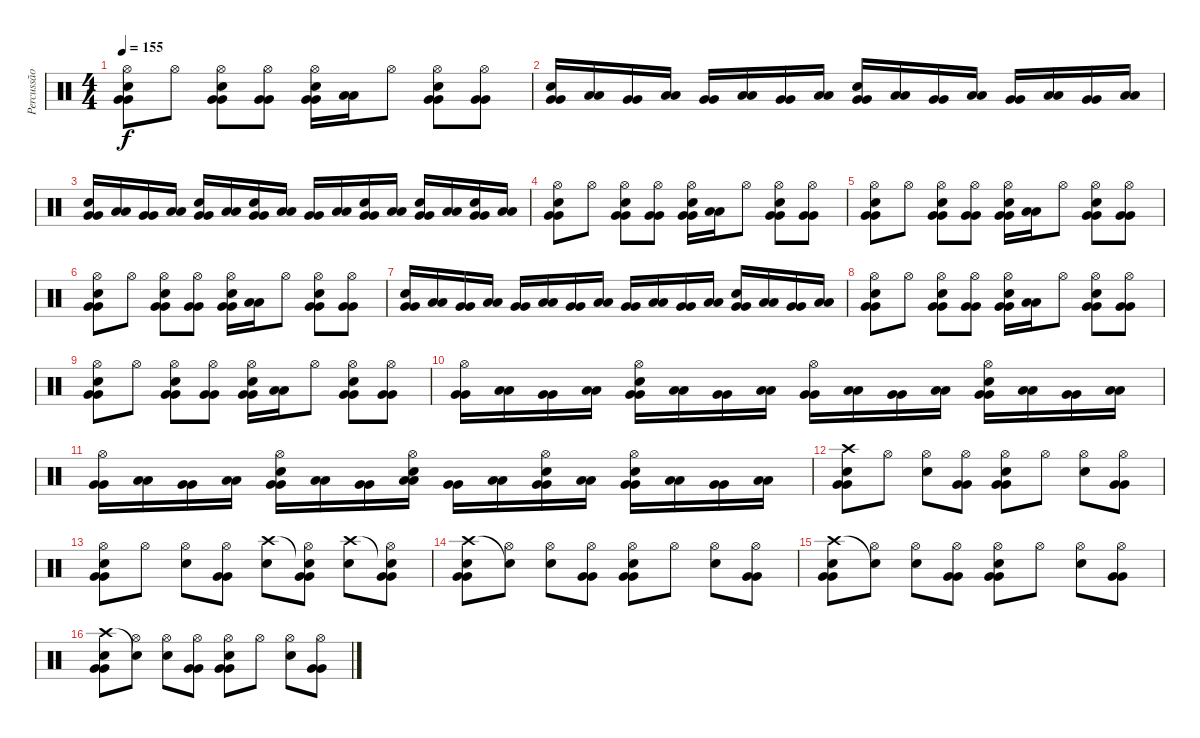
\track ("Percussão" "Percussão") {instrument percussion}
\staff {score}
\articulation defaults
\ts (4 4)
\tempo 155
\clef neutral
\ks c
("Hi-Hat (open)" "Electric Snare (hit)" "Very Low Tom (hit)" "Very Low Tom (hit)").8{dy f} "Hi-Hat (open)".8 ("Hi-Hat (open)" "Electric Snare (hit)" "Very Low Tom (hit)" "Very Low Tom (hit)").8 ("Hi-Hat (open)" "Very Low Tom (hit)" "Very Low Tom (hit)").8 ("Hi-Hat (open)" "Electric Snare (hit)" "Very Low Tom (hit)" "Very Low Tom (hit)").16 ("Low Floor Tom (hit)" "Low Floor Tom (hit)").16 "Hi-Hat (open)".8 ("Hi-Hat (open)" "Electric Snare (hit)" "Very Low Tom (hit)" "Very Low Tom (hit)").8 ("Hi-Hat (open)" "Very Low Tom (hit)" "Very Low Tom (hit)").8 |
("Electric Snare (hit)" "Very Low Tom (hit)" "Very Low Tom (hit)").16 ("Low Floor Tom (hit)" "Low Floor Tom (hit)").16 ("Very Low Tom (hit)" "Very Low Tom (hit)").16 ("Low Floor Tom (hit)" "Low Floor Tom (hit)").16 ("Very Low Tom (hit)" "Very Low Tom (hit)").16 ("Low Floor Tom (hit)" "Low Floor Tom (hit)").16 ("Very Low Tom (hit)" "Very Low Tom (hit)").16 ("Low Floor Tom (hit)" "Low Floor Tom (hit)").16 ("Electric Snare (hit)" "Very Low Tom (hit)" "Very Low Tom (hit)").16 ("Low Floor Tom (hit)" "Low Floor Tom (hit)").16 ("Very Low Tom (hit)" "Very Low Tom (hit)").16 ("Low Floor Tom (hit)" "Low Floor Tom (hit)").16 ("Very Low Tom (hit)" "Very Low Tom (hit)").16 ("Low Floor Tom (hit)" "Low Floor Tom (hit)").16 ("Very Low Tom (hit)" "Very Low Tom (hit)").16 ("Low Floor Tom (hit)" "Low Floor Tom (hit)").16 |
("Electric Snare (hit)" "Very Low Tom (hit)" "Very Low Tom (hit)").16 ("Low Floor Tom (hit)" "Low Floor Tom (hit)").16 ("Very Low Tom (hit)" "Very Low Tom (hit)").16 ("Low Floor Tom (hit)" "Low Floor Tom (hit)").16 ("Electric Snare (hit)" "Very Low Tom (hit)" "Very Low Tom (hit)").16 ("Low Floor Tom (hit)" "Low Floor Tom (hit)").16 ("Electric Snare (hit)" "Very Low Tom (hit)" "Very Low Tom (hit)").16 ("Low Floor Tom (hit)" "Low Floor Tom (hit)").16 ("Very Low Tom (hit)" "Very Low Tom (hit)").16 ("Low Floor Tom (hit)" "Low Floor Tom (hit)").16 ("Electric Snare (hit)" "Very Low Tom (hit)" "Very Low Tom (hit)").16 ("Low Floor Tom (hit)" "Low Floor Tom (hit)").16 ("Electric Snare (hit)" "Very Low Tom (hit)" "Very Low Tom (hit)").16 ("Low Floor Tom (hit)" "Low Floor Tom (hit)").16 ("Electric Snare (hit)" "Very Low Tom (hit)" "Very Low Tom (hit)").16 ("Low Floor Tom (hit)" "Low Floor Tom (hit)").16 |
("Hi-Hat (open)" "Electric Snare (hit)" "Very Low Tom (hit)" "Very Low Tom (hit)").8 "Hi-Hat (open)".8 ("Hi-Hat (open)" "Electric Snare (hit)" "Very Low Tom (hit)" "Very Low Tom (hit)").8 ("Hi-Hat (open)" "Very Low Tom (hit)" "Very Low Tom (hit)").8 ("Hi-Hat (open)" "Electric Snare (hit)" "Very Low Tom (hit)" "Very Low Tom (hit)").16 ("Low Floor Tom (hit)" "Low Floor Tom (hit)").16 "Hi-Hat (open)".8 ("Hi-Hat (open)" "Electric Snare (hit)" "Very Low Tom (hit)" "Very Low Tom (hit)").8 ("Hi-Hat (open)" "Very Low Tom (hit)" "Very Low Tom (hit)").8 |
("Hi-Hat (open)" "Electric Snare (hit)" "Very Low Tom (hit)" "Very Low Tom (hit)").8 "Hi-Hat (open)".8 ("Hi-Hat (open)" "Electric Snare (hit)" "Very Low Tom (hit)" "Very Low Tom (hit)").8 ("Hi-Hat (open)" "Very Low Tom (hit)" "Very Low Tom (hit)").8 ("Hi-Hat (open)" "Electric Snare (hit)" "Very Low Tom (hit)" "Very Low Tom (hit)").16 ("Low Floor Tom (hit)" "Low Floor Tom (hit)").16 "Hi-Hat (open)".8 ("Hi-Hat (open)" "Electric Snare (hit)" "Very Low Tom (hit)" "Very Low Tom (hit)").8 ("Hi-Hat (open)" "Very Low Tom (hit)" "Very Low Tom (hit)").8 |
("Hi-Hat (open)" "Electric Snare (hit)" "Very Low Tom (hit)" "Very Low Tom (hit)").8 "Hi-Hat (open)".8 ("Hi-Hat (open)" "Electric Snare (hit)" "Very Low Tom (hit)" "Very Low Tom (hit)").8 ("Hi-Hat (open)" "Very Low Tom (hit)" "Very Low Tom (hit)").8 ("Hi-Hat (open)" "Electric Snare (hit)" "Very Low Tom (hit)" "Very Low Tom (hit)").16 ("Low Floor Tom (hit)" "Low Floor Tom (hit)").16 "Hi-Hat (open)".8 ("Hi-Hat (open)" "Electric Snare (hit)" "Very Low Tom (hit)" "Very Low Tom (hit)").8 ("Hi-Hat (open)" "Very Low Tom (hit)" "Very Low Tom (hit)").8 |
("Electric Snare (hit)" "Very Low Tom (hit)" "Very Low Tom (hit)").16 ("Low Floor Tom (hit)" "Low Floor Tom (hit)").16 ("Very Low Tom (hit)" "Very Low Tom (hit)").16 ("Low Floor Tom (hit)" "Low Floor Tom (hit)").16 ("Very Low Tom (hit)" "Very Low Tom (hit)").16 ("Low Floor Tom (hit)" "Low Floor Tom (hit)").16 ("Very Low Tom (hit)" "Very Low Tom (hit)").16 ("Low Floor Tom (hit)" "Low Floor Tom (hit)").16 ("Very Low Tom (hit)" "Very Low Tom (hit)").16 ("Low Floor Tom (hit)" "Low Floor Tom (hit)").16 ("Very Low Tom (hit)" "Very Low Tom (hit)").16 ("Low Floor Tom (hit)" "Low Floor Tom (hit)").16 ("Electric Snare (hit)" "Very Low Tom (hit)" "Very Low Tom (hit)").16 ("Low Floor Tom (hit)" "Low Floor Tom (hit)").16 ("Very Low Tom (hit)" "Very Low Tom (hit)").16 ("Low Floor Tom (hit)" "Low Floor Tom (hit)").16 |
("Hi-Hat (open)" "Electric Snare (hit)" "Very Low Tom (hit)" "Very Low Tom (hit)").8 "Hi-Hat (open)".8 ("Hi-Hat (open)" "Electric Snare (hit)" "Very Low Tom (hit)" "Very Low Tom (hit)").8 ("Hi-Hat (open)" "Very Low Tom (hit)" "Very Low Tom (hit)").8 ("Hi-Hat (open)" "Electric Snare (hit)" "Very Low Tom (hit)" "Very Low Tom (hit)").16 ("Low Floor Tom (hit)" "Low Floor Tom (hit)").16 "Hi-Hat (open)".8 ("Hi-Hat (open)" "Electric Snare (hit)" "Very Low Tom (hit)" "Very Low Tom (hit)").8 ("Hi-Hat (open)" "Very Low Tom (hit)" "Very Low Tom (hit)").8 |
("Hi-Hat (open)" "Electric Snare (hit)" "Very Low Tom (hit)" "Very Low Tom (hit)").8 "Hi-Hat (open)".8 ("Hi-Hat (open)" "Electric Snare (hit)" "Very Low Tom (hit)" "Very Low Tom (hit)").8 ("Hi-Hat (open)" "Very Low Tom (hit)" "Very Low Tom (hit)").8 ("Hi-Hat (open)" "Electric Snare (hit)" "Very Low Tom (hit)" "Very Low Tom (hit)").16 ("Low Floor Tom (hit)" "Low Floor Tom (hit)").16 "Hi-Hat (open)".8 ("Hi-Hat (open)" "Electric Snare (hit)" "Very Low Tom (hit)" "Very Low Tom (hit)").8 ("Hi-Hat (open)" "Very Low Tom (hit)" "Very Low Tom (hit)").8 |
("Hi-Hat (open)" "Very Low Tom (hit)" "Very Low Tom (hit)").16 ("Low Floor Tom (hit)" "Low Floor Tom (hit)").16 ("Very Low Tom (hit)" "Very Low Tom (hit)").16 ("Low Floor Tom (hit)" "Low Floor Tom (hit)").16 ("Hi-Hat (open)" "Electric Snare (hit)" "Very Low Tom (hit)" "Very Low Tom (hit)").16 ("Low Floor Tom (hit)" "Low Floor Tom (hit)").16 ("Very Low Tom (hit)" "Very Low Tom (hit)").16 ("Low Floor Tom (hit)" "Low Floor Tom (hit)").16 ("Hi-Hat (open)" "Very Low Tom (hit)" "Very Low Tom (hit)").16 ("Low Floor Tom (hit)" "Low Floor Tom (hit)").16 ("Very Low Tom (hit)" "Very Low Tom (hit)").16 ("Low Floor Tom (hit)" "Low Floor Tom (hit)").16 ("Hi-Hat (open)" "Electric Snare (hit)" "Very Low Tom (hit)" "Very Low Tom (hit)").16 ("Low Floor Tom (hit)" "Low Floor Tom (hit)").16 ("Very Low Tom (hit)" "Very Low Tom (hit)").16 ("Low Floor Tom (hit)" "Low Floor Tom (hit)").16 |
("Hi-Hat (open)" "Very Low Tom (hit)" "Very Low Tom (hit)").16 ("Low Floor Tom (hit)" "Low Floor Tom (hit)").16 ("Very Low Tom (hit)" "Very Low Tom (hit)").16 ("Low Floor Tom (hit)" "Low Floor Tom (hit)").16 ("Hi-Hat (open)" "Electric Snare (hit)" "Very Low Tom (hit)" "Very Low Tom (hit)").16 ("Low Floor Tom (hit)" "Low Floor Tom (hit)").16 ("Very Low Tom (hit)" "Very Low Tom (hit)").16 ("Hi-Hat (open)" "Electric Snare (hit)" "Low Floor Tom (hit)" "Low Floor Tom (hit)").16 ("Very Low Tom (hit)" "Very Low Tom (hit)").16 ("Low Floor Tom (hit)" "Low Floor Tom (hit)").16 ("Hi-Hat (open)" "Electric Snare (hit)" "Very Low Tom (hit)" "Very Low Tom (hit)").16 ("Low Floor Tom (hit)" "Low Floor Tom (hit)").16 ("Hi-Hat (open)" "Electric Snare (hit)" "Very Low Tom (hit)" "Very Low Tom (hit)").16 ("Low Floor Tom (hit)" "Low Floor Tom (hit)").16 ("Very Low Tom (hit)" "Very Low Tom (hit)").16 ("Low Floor Tom (hit)" "Low Floor Tom (hit)").16 |
("Crash high (hit)" "Electric Snare (hit)" "Very Low Tom (hit)" "Very Low Tom (hit)").8 "Hi-Hat (open)".8 ("Hi-Hat (open)" "Electric Snare (hit)").8 ("Hi-Hat (open)" "Very Low Tom (hit)" "Very Low Tom (hit)").8 ("Hi-Hat (open)" "Electric Snare (hit)" "Very Low Tom (hit)" "Very Low Tom (hit)").8 "Hi-Hat (open)".8 ("Hi-Hat (open)" "Electric Snare (hit)").8 ("Hi-Hat (open)" "Very Low Tom (hit)" "Very Low Tom (hit)").8 |
("Hi-Hat (open)" "Electric Snare (hit)" "Very Low Tom (hit)" "Very Low Tom (hit)").8 "Hi-Hat (open)".8 ("Hi-Hat (open)" "Electric Snare (hit)").8 ("Hi-Hat (open)" "Very Low Tom (hit)" "Very Low Tom (hit)").8 ("Crash high (hit)" "Electric Snare (hit)").8 ("Snare (hit)"{t} "Hi-Hat (open)" "Very Low Tom (hit)" "Very Low Tom (hit)").8 ("Crash high (hit)" "Electric Snare (hit)").8 ("Snare (hit)"{t} "Hi-Hat (open)" "Very Low Tom (hit)" "Very Low Tom (hit)").8 |
("Crash high (hit)" "Electric Snare (hit)" "Very Low Tom (hit)" "Very Low Tom (hit)").8 ("Snare (hit)"{t} "Hi-Hat (open)").8 ("Hi-Hat (open)" "Electric Snare (hit)").8 ("Hi-Hat (open)" "Very Low Tom (hit)" "Very Low Tom (hit)").8 ("Hi-Hat (open)" "Electric Snare (hit)" "Very Low Tom (hit)" "Very Low Tom (hit)").8 "Hi-Hat (open)".8 ("Hi-Hat (open)" "Electric Snare (hit)").8 ("Hi-Hat (open)" "Very Low Tom (hit)" "Very Low Tom (hit)").8 |
("Crash high (hit)" "Electric Snare (hit)" "Very Low Tom (hit)" "Very Low Tom (hit)").8 ("Snare (hit)"{t} "Hi-Hat (open)").8 ("Hi-Hat (open)" "Electric Snare (hit)").8 ("Hi-Hat (open)" "Very Low Tom (hit)" "Very Low Tom (hit)").8 ("Hi-Hat (open)" "Electric Snare (hit)" "Very Low Tom (hit)" "Very Low Tom (hit)").8 "Hi-Hat (open)".8 ("Hi-Hat (open)" "Electric Snare (hit)").8 ("Hi-Hat (open)" "Very Low Tom (hit)" "Very Low Tom (hit)").8 |
("Crash high (hit)" "Electric Snare (hit)" "Very Low Tom (hit)" "Very Low Tom (hit)").8 ("Snare (hit)"{t} "Hi-Hat (open)").8 ("Hi-Hat (open)" "Electric Snare (hit)").8 ("Hi-Hat (open)" "Very Low Tom (hit)" "Very Low Tom (hit)").8 ("Hi-Hat (open)" "Electric Snare (hit)" "Very Low Tom (hit)" "Very Low Tom (hit)").8 "Hi-Hat (open)".8 ("Hi-Hat (open)" "Electric Snare (hit)").8 ("Hi-Hat (open)" "Very Low Tom (hit)" "Very Low Tom (hit)").8
